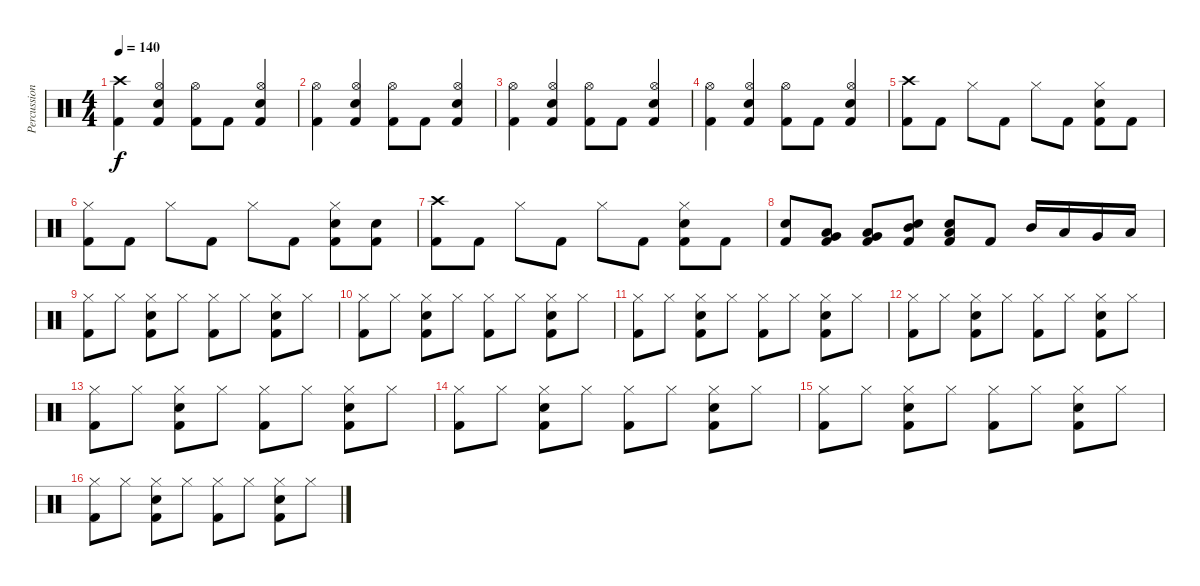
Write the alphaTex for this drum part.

\track ("Percussions" "Percussion") {instrument percussion}
\staff {score}
\articulation defaults
\ts (4 4)
\tempo 140
\clef neutral
\ks c
("Crash high (hit)" "Kick (hit) 2").4{dy f} ("Hi-Hat (open)" "Electric Snare (hit)" "Kick (hit) 2").4 ("Hi-Hat (open)" "Kick (hit) 2").8 "Kick (hit) 2".8 ("Hi-Hat (open)" "Electric Snare (hit)" "Kick (hit) 2").4 |
("Hi-Hat (open)" "Kick (hit) 2").4 ("Hi-Hat (open)" "Electric Snare (hit)" "Kick (hit) 2").4 ("Hi-Hat (open)" "Kick (hit) 2").8 "Kick (hit) 2".8 ("Hi-Hat (open)" "Electric Snare (hit)" "Kick (hit) 2").4 |
("Hi-Hat (open)" "Kick (hit) 2").4 ("Hi-Hat (open)" "Electric Snare (hit)" "Kick (hit) 2").4 ("Hi-Hat (open)" "Kick (hit) 2").8 "Kick (hit) 2".8 ("Hi-Hat (open)" "Electric Snare (hit)" "Kick (hit) 2").4 |
("Hi-Hat (open)" "Kick (hit) 2").4 ("Hi-Hat (open)" "Electric Snare (hit)" "Kick (hit) 2").4 ("Hi-Hat (open)" "Kick (hit) 2").8 "Kick (hit) 2".8 ("Hi-Hat (open)" "Electric Snare (hit)" "Kick (hit) 2").4 |
("Crash high (hit)" "Kick (hit) 2").8 "Kick (hit) 2".8 "Hi-Hat (closed)".8 "Kick (hit) 2".8 "Hi-Hat (closed)".8 "Kick (hit) 2".8 ("Hi-Hat (closed)" "Electric Snare (hit)" "Kick (hit) 2").8 "Kick (hit) 2".8 |
("Hi-Hat (closed)" "Kick (hit) 2").8 "Kick (hit) 2".8 "Hi-Hat (closed)".8 "Kick (hit) 2".8 "Hi-Hat (closed)".8 "Kick (hit) 2".8 ("Hi-Hat (closed)" "Electric Snare (hit)" "Kick (hit) 2").8 ("Electric Snare (hit)" "Kick (hit) 2").8 |
("Crash high (hit)" "Kick (hit) 2").8 "Kick (hit) 2".8 "Hi-Hat (closed)".8 "Kick (hit) 2".8 "Hi-Hat (closed)".8 "Kick (hit) 2".8 ("Hi-Hat (closed)" "Electric Snare (hit)" "Kick (hit) 2").8 "Kick (hit) 2".8 |
("Electric Snare (hit)" "Kick (hit) 2").8 ("Low Floor Tom (hit)" "Very Low Tom (hit)" "Kick (hit) 2").8 ("Low Floor Tom (hit)" "Very Low Tom (hit)" "Kick (hit) 2").8 ("Electric Snare (hit)" "Mid Tom (hit)" "Kick (hit) 2").8 ("Electric Snare (hit)" "Low Tom (hit)" "Kick (hit) 2").8 "Kick (hit) 2".8 "Mid Tom (hit)".16 "Low Tom (hit)".16 "Very Low Tom (hit)".16 "Low Floor Tom (hit)".16 |
("Hi-Hat (closed)" "Kick (hit) 2").8 "Hi-Hat (closed)".8 ("Hi-Hat (closed)" "Snare (hit) 2" "Kick (hit) 2").8 "Hi-Hat (closed)".8 ("Hi-Hat (closed)" "Kick (hit) 2").8 "Hi-Hat (closed)".8 ("Hi-Hat (closed)" "Snare (hit) 2" "Kick (hit) 2").8 "Hi-Hat (closed)".8 |
("Hi-Hat (closed)" "Kick (hit) 2").8 "Hi-Hat (closed)".8 ("Hi-Hat (closed)" "Snare (hit) 2" "Kick (hit) 2").8 "Hi-Hat (closed)".8 ("Hi-Hat (closed)" "Kick (hit) 2").8 "Hi-Hat (closed)".8 ("Hi-Hat (closed)" "Snare (hit) 2" "Kick (hit) 2").8 "Hi-Hat (closed)".8 |
("Hi-Hat (closed)" "Kick (hit) 2").8 "Hi-Hat (closed)".8 ("Hi-Hat (closed)" "Snare (hit) 2" "Kick (hit) 2").8 "Hi-Hat (closed)".8 ("Hi-Hat (closed)" "Kick (hit) 2").8 "Hi-Hat (closed)".8 ("Hi-Hat (closed)" "Snare (hit) 2" "Kick (hit) 2").8 "Hi-Hat (closed)".8 |
("Hi-Hat (closed)" "Kick (hit) 2").8 "Hi-Hat (closed)".8 ("Hi-Hat (closed)" "Snare (hit) 2" "Kick (hit) 2").8 "Hi-Hat (closed)".8 ("Hi-Hat (closed)" "Kick (hit) 2").8 "Hi-Hat (closed)".8 ("Hi-Hat (closed)" "Snare (hit) 2" "Kick (hit) 2").8 "Hi-Hat (closed)".8 |
("Hi-Hat (closed)" "Kick (hit) 2").8 "Hi-Hat (closed)".8 ("Hi-Hat (closed)" "Snare (hit) 2" "Kick (hit) 2").8 "Hi-Hat (closed)".8 ("Hi-Hat (closed)" "Kick (hit) 2").8 "Hi-Hat (closed)".8 ("Hi-Hat (closed)" "Snare (hit) 2" "Kick (hit) 2").8 "Hi-Hat (closed)".8 |
("Hi-Hat (closed)" "Kick (hit) 2").8 "Hi-Hat (closed)".8 ("Hi-Hat (closed)" "Snare (hit) 2" "Kick (hit) 2").8 "Hi-Hat (closed)".8 ("Hi-Hat (closed)" "Kick (hit) 2").8 "Hi-Hat (closed)".8 ("Hi-Hat (closed)" "Snare (hit) 2" "Kick (hit) 2").8 "Hi-Hat (closed)".8 |
("Hi-Hat (closed)" "Kick (hit) 2").8 "Hi-Hat (closed)".8 ("Hi-Hat (closed)" "Snare (hit) 2" "Kick (hit) 2").8 "Hi-Hat (closed)".8 ("Hi-Hat (closed)" "Kick (hit) 2").8 "Hi-Hat (closed)".8 ("Hi-Hat (closed)" "Snare (hit) 2" "Kick (hit) 2").8 "Hi-Hat (closed)".8 |
("Hi-Hat (closed)" "Kick (hit) 2").8 "Hi-Hat (closed)".8 ("Hi-Hat (closed)" "Snare (hit) 2" "Kick (hit) 2").8 "Hi-Hat (closed)".8 ("Hi-Hat (closed)" "Kick (hit) 2").8 "Hi-Hat (closed)".8 ("Hi-Hat (closed)" "Snare (hit) 2" "Kick (hit) 2").8 "Hi-Hat (closed)".8
